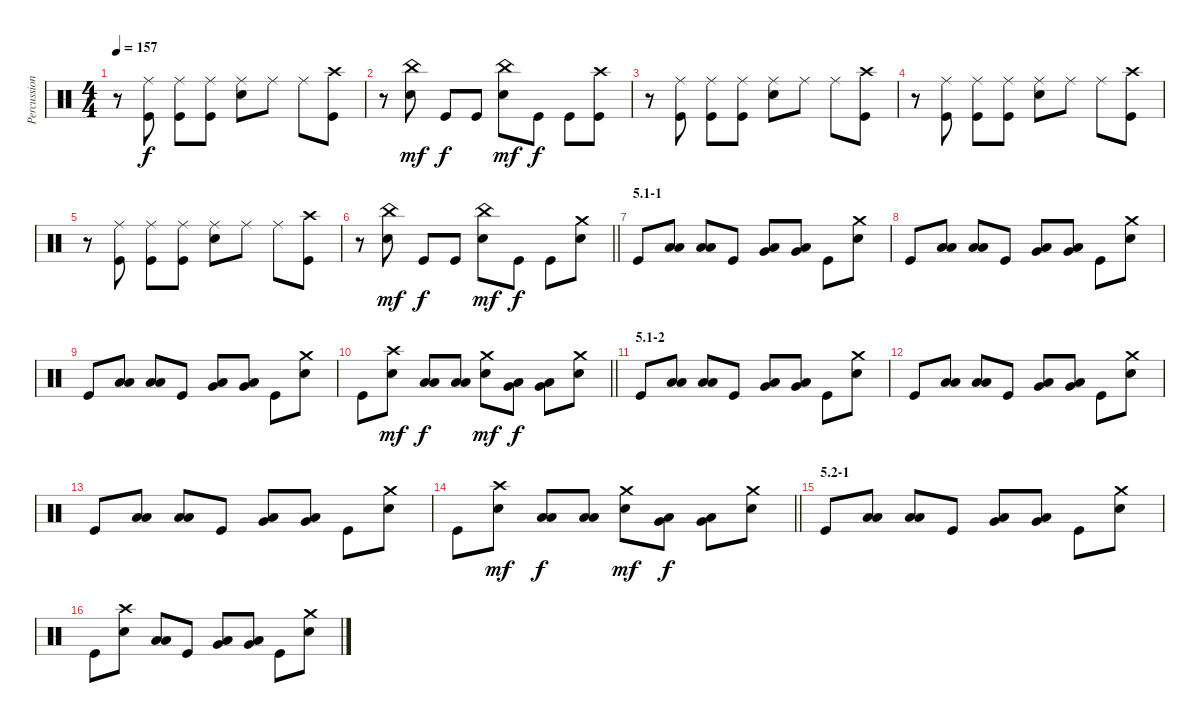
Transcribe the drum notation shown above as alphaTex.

\track ("Percussion" "Percussion") {instrument percussion}
\staff {score}
\articulation defaults
\ts (4 4)
\tempo 157
\clef neutral
\ks c
r.8{dy f} ("Ride (middle)" "Kick (hit)").8 ("Ride (middle)" "Kick (hit)").8 ("Ride (middle)" "Kick (hit)").8 ("Ride (middle)" "Snare (hit) 2").8 "Ride (middle)".8 "Ride (middle)".8 ("Crash high (hit)" "Kick (hit)").8 |
r.8 ("China (hit)" "Snare (hit) 2").8{dy mf} "Kick (hit)".8{dy f} "Kick (hit)".8 ("China (hit)" "Snare (hit) 2").8{dy mf} "Kick (hit)".8{dy f} "Kick (hit)".8 ("Crash high (hit)" "Kick (hit)").8 |
r.8 ("Ride (middle)" "Kick (hit)").8 ("Ride (middle)" "Kick (hit)").8 ("Ride (middle)" "Kick (hit)").8 ("Ride (middle)" "Snare (hit) 2").8 "Ride (middle)".8 "Ride (middle)".8 ("Crash high (hit)" "Kick (hit)").8 |
r.8 ("Ride (middle)" "Kick (hit)").8 ("Ride (middle)" "Kick (hit)").8 ("Ride (middle)" "Kick (hit)").8 ("Ride (middle)" "Snare (hit) 2").8 "Ride (middle)".8 "Ride (middle)".8 ("Crash high (hit)" "Kick (hit)").8 |
r.8 ("Ride (middle)" "Kick (hit)").8 ("Ride (middle)" "Kick (hit)").8 ("Ride (middle)" "Kick (hit)").8 ("Ride (middle)" "Snare (hit) 2").8 "Ride (middle)".8 "Ride (middle)".8 ("Crash high (hit)" "Kick (hit)").8 |
\barLineRight lightlight
r.8 ("China (hit)" "Snare (hit) 2").8{dy mf} "Kick (hit)".8{dy f} "Kick (hit)".8 ("China (hit)" "Snare (hit) 2").8{dy mf} "Kick (hit)".8{dy f} "Kick (hit)".8 ("Crash medium (hit)" "Snare (hit) 2").8 |
\section ("" "5.1-1")
"Kick (hit)".8 ("Low Tom (hit)" "Low Floor Tom (hit)").8 ("Low Tom (hit)" "Low Floor Tom (hit)").8 "Kick (hit)".8 ("Very Low Tom (hit)" "Low Floor Tom (hit)").8 ("Very Low Tom (hit)" "Low Floor Tom (hit)").8 "Kick (hit)".8 ("Crash medium (hit)" "Snare (hit) 2").8 |
"Kick (hit)".8 ("Low Tom (hit)" "Low Floor Tom (hit)").8 ("Low Tom (hit)" "Low Floor Tom (hit)").8 "Kick (hit)".8 ("Very Low Tom (hit)" "Low Floor Tom (hit)").8 ("Very Low Tom (hit)" "Low Floor Tom (hit)").8 "Kick (hit)".8 ("Crash medium (hit)" "Snare (hit) 2").8 |
"Kick (hit)".8 ("Low Tom (hit)" "Low Floor Tom (hit)").8 ("Low Tom (hit)" "Low Floor Tom (hit)").8 "Kick (hit)".8 ("Very Low Tom (hit)" "Low Floor Tom (hit)").8 ("Very Low Tom (hit)" "Low Floor Tom (hit)").8 "Kick (hit)".8 ("Crash medium (hit)" "Snare (hit) 2").8 |
\barLineRight lightlight "Kick (hit)".8
("Crash high (hit)" "Snare (hit) 2").8{dy mf} ("Low Tom (hit)" "Low Floor Tom (hit)").8{dy f} ("Low Tom (hit)" "Low Floor Tom (hit)").8 ("Crash medium (hit)" "Snare (hit) 2").8{dy mf} ("Very Low Tom (hit)" "Low Floor Tom (hit)").8{dy f} ("Very Low Tom (hit)" "Low Floor Tom (hit)").8 ("Crash medium (hit)" "Snare (hit) 2").8 |
\section ("" "5.1-2")
"Kick (hit)".8 ("Low Tom (hit)" "Low Floor Tom (hit)").8 ("Low Tom (hit)" "Low Floor Tom (hit)").8 "Kick (hit)".8 ("Very Low Tom (hit)" "Low Floor Tom (hit)").8 ("Very Low Tom (hit)" "Low Floor Tom (hit)").8 "Kick (hit)".8 ("Crash medium (hit)" "Snare (hit) 2").8 |
"Kick (hit)".8 ("Low Tom (hit)" "Low Floor Tom (hit)").8 ("Low Tom (hit)" "Low Floor Tom (hit)").8 "Kick (hit)".8 ("Very Low Tom (hit)" "Low Floor Tom (hit)").8 ("Very Low Tom (hit)" "Low Floor Tom (hit)").8 "Kick (hit)".8 ("Crash medium (hit)" "Snare (hit) 2").8 |
"Kick (hit)".8 ("Low Tom (hit)" "Low Floor Tom (hit)").8 ("Low Tom (hit)" "Low Floor Tom (hit)").8 "Kick (hit)".8 ("Very Low Tom (hit)" "Low Floor Tom (hit)").8 ("Very Low Tom (hit)" "Low Floor Tom (hit)").8 "Kick (hit)".8 ("Crash medium (hit)" "Snare (hit) 2").8 |
\barLineRight lightlight "Kick (hit)".8
("Crash high (hit)" "Snare (hit) 2").8{dy mf} ("Low Tom (hit)" "Low Floor Tom (hit)").8{dy f} ("Low Tom (hit)" "Low Floor Tom (hit)").8 ("Crash medium (hit)" "Snare (hit) 2").8{dy mf} ("Very Low Tom (hit)" "Low Floor Tom (hit)").8{dy f} ("Very Low Tom (hit)" "Low Floor Tom (hit)").8 ("Crash medium (hit)" "Snare (hit) 2").8 |
\section ("" "5.2-1")
"Kick (hit)".8 ("Low Tom (hit)" "Low Floor Tom (hit)").8 ("Low Tom (hit)" "Low Floor Tom (hit)").8 "Kick (hit)".8 ("Very Low Tom (hit)" "Low Floor Tom (hit)").8 ("Very Low Tom (hit)" "Low Floor Tom (hit)").8 "Kick (hit)".8 ("Crash medium (hit)" "Snare (hit) 2").8 |
"Kick (hit)".8 ("Crash high (hit)" "Snare (hit) 2").8 ("Low Tom (hit)" "Low Floor Tom (hit)").8 "Kick (hit)".8 ("Very Low Tom (hit)" "Low Floor Tom (hit)").8 ("Very Low Tom (hit)" "Low Floor Tom (hit)").8 "Kick (hit)".8 ("Crash medium (hit)" "Snare (hit) 2").8
